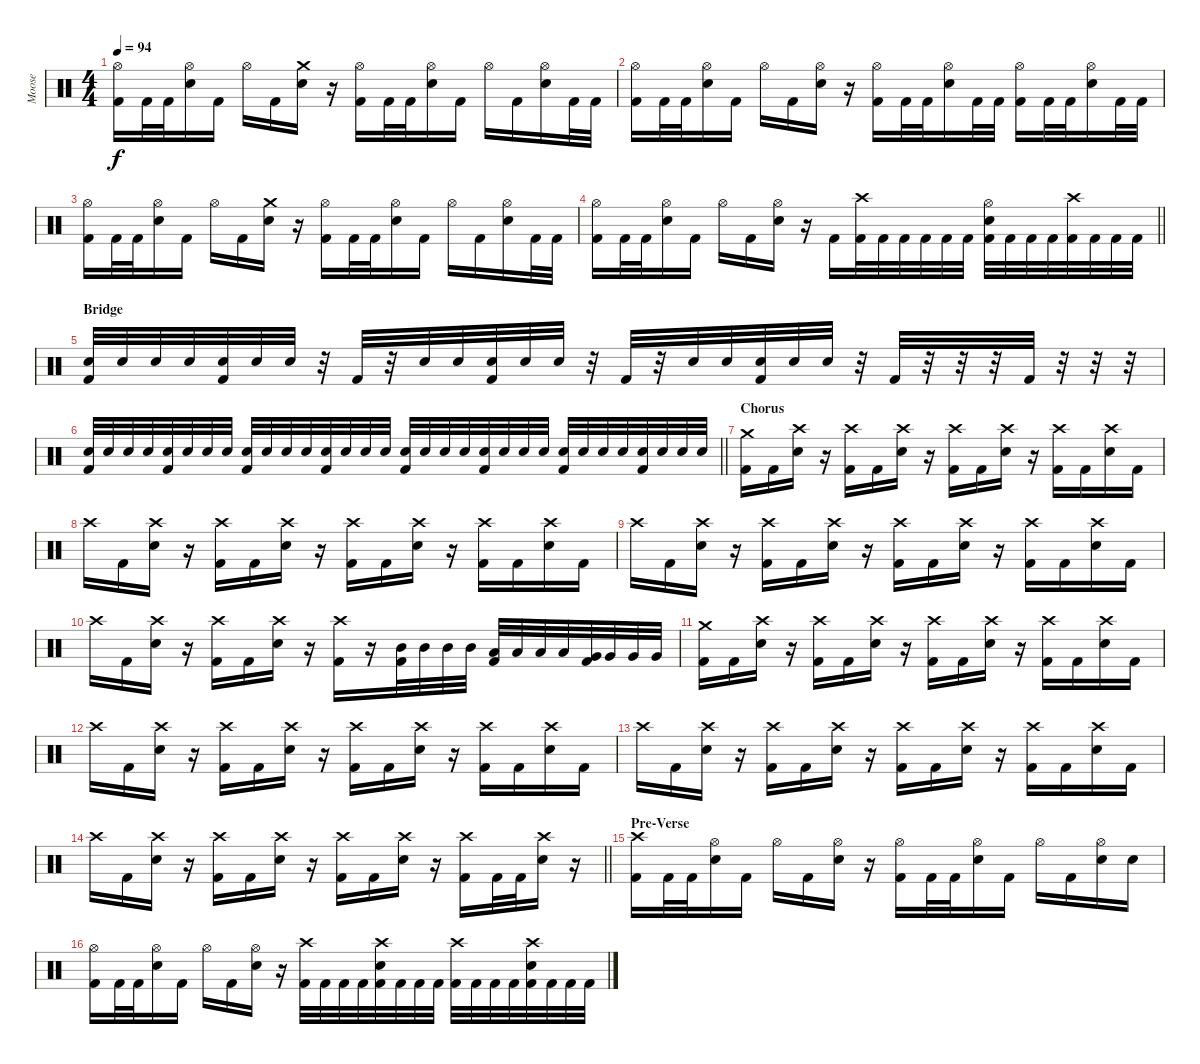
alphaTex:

\track ("Moose" "Moose") {instrument percussion}
\staff {score}
\articulation defaults
\ts (4 4)
\tempo 94
\clef neutral
\ks c
("Hi-Hat (open)" "Kick (hit) 2").16{dy f} "Kick (hit) 2".32 "Kick (hit) 2".32 ("Hi-Hat (open)" "Electric Snare (hit)").16 "Kick (hit) 2".16 "Hi-Hat (open)".16 "Kick (hit) 2".16 ("Crash medium (hit)" "Electric Snare (hit)").16 r.16 ("Hi-Hat (open)" "Kick (hit) 2").16 "Kick (hit) 2".32 "Kick (hit) 2".32 ("Hi-Hat (open)" "Electric Snare (hit)").16 "Kick (hit) 2".16 "Hi-Hat (open)".16 "Kick (hit) 2".16 ("Hi-Hat (open)" "Electric Snare (hit)").16 "Kick (hit) 2".32 "Kick (hit) 2".32 |
("Hi-Hat (open)" "Kick (hit) 2").16 "Kick (hit) 2".32 "Kick (hit) 2".32 ("Hi-Hat (open)" "Electric Snare (hit)").16 "Kick (hit) 2".16 "Hi-Hat (open)".16 "Kick (hit) 2".16 ("Hi-Hat (open)" "Electric Snare (hit)").16 r.16 ("Hi-Hat (open)" "Kick (hit) 2").16 "Kick (hit) 2".32 "Kick (hit) 2".32 ("Hi-Hat (open)" "Electric Snare (hit)").16 "Kick (hit) 2".32 "Kick (hit) 2".32 ("Hi-Hat (open)" "Kick (hit) 2").16 "Kick (hit) 2".32 "Kick (hit) 2".32 ("Hi-Hat (open)" "Electric Snare (hit)").16 "Kick (hit) 2".32 "Kick (hit) 2".32 |
("Hi-Hat (open)" "Kick (hit) 2").16 "Kick (hit) 2".32 "Kick (hit) 2".32 ("Hi-Hat (open)" "Electric Snare (hit)").16 "Kick (hit) 2".16 "Hi-Hat (open)".16 "Kick (hit) 2".16 ("Crash medium (hit)" "Electric Snare (hit)").16 r.16 ("Hi-Hat (open)" "Kick (hit) 2").16 "Kick (hit) 2".32 "Kick (hit) 2".32 ("Hi-Hat (open)" "Electric Snare (hit)").16 "Kick (hit) 2".16 "Hi-Hat (open)".16 "Kick (hit) 2".16 ("Hi-Hat (open)" "Electric Snare (hit)").16 "Kick (hit) 2".32 "Kick (hit) 2".32 |
\barLineRight lightlight
("Hi-Hat (open)" "Kick (hit) 2").16 "Kick (hit) 2".32 "Kick (hit) 2".32 ("Hi-Hat (open)" "Electric Snare (hit)").16 "Kick (hit) 2".16 "Hi-Hat (open)".16 "Kick (hit) 2".16 ("Hi-Hat (open)" "Electric Snare (hit)").16 r.16 "Kick (hit) 2".16 ("Crash high (hit)" "Kick (hit) 2").32 "Kick (hit) 2".32 "Kick (hit) 2".32 "Kick (hit) 2".32 "Kick (hit) 2".32 "Kick (hit) 2".32 ("Hi-Hat (open)" "Electric Snare (hit)" "Kick (hit) 2").32 "Kick (hit) 2".32 "Kick (hit) 2".32 "Kick (hit) 2".32 ("Crash high (hit)" "Kick (hit) 2").32 "Kick (hit) 2".32 "Kick (hit) 2".32 "Kick (hit) 2".32 |
\section ("" "Bridge")
("Electric Snare (hit)" "Kick (hit) 2").32 "Electric Snare (hit)".32 "Electric Snare (hit)".32 "Electric Snare (hit)".32 ("Electric Snare (hit)" "Kick (hit) 2").32 "Electric Snare (hit)".32 "Electric Snare (hit)".32 r.32 "Kick (hit) 2".32 r.32 "Electric Snare (hit)".32 "Electric Snare (hit)".32 ("Electric Snare (hit)" "Kick (hit) 2").32 "Electric Snare (hit)".32 "Electric Snare (hit)".32 r.32 "Kick (hit) 2".32 r.32 "Electric Snare (hit)".32 "Electric Snare (hit)".32 ("Electric Snare (hit)" "Kick (hit) 2").32 "Electric Snare (hit)".32 "Electric Snare (hit)".32 r.32 "Kick (hit) 2".32 r.32 r.32 r.32 "Kick (hit) 2".32 r.32 r.32 r.32 |
\barLineRight lightlight
("Electric Snare (hit)" "Kick (hit) 2").32 "Electric Snare (hit)".32 "Electric Snare (hit)".32 "Electric Snare (hit)".32 ("Electric Snare (hit)" "Kick (hit) 2").32 "Electric Snare (hit)".32 "Electric Snare (hit)".32 "Electric Snare (hit)".32 ("Electric Snare (hit)" "Kick (hit) 2").32 "Electric Snare (hit)".32 "Electric Snare (hit)".32 "Electric Snare (hit)".32 ("Electric Snare (hit)" "Kick (hit) 2").32 "Electric Snare (hit)".32 "Electric Snare (hit)".32 "Electric Snare (hit)".32 ("Electric Snare (hit)" "Kick (hit) 2").32 "Electric Snare (hit)".32 "Electric Snare (hit)".32 "Electric Snare (hit)".32 ("Electric Snare (hit)" "Kick (hit) 2").32 "Electric Snare (hit)".32 "Electric Snare (hit)".32 "Electric Snare (hit)".32 ("Electric Snare (hit)" "Kick (hit) 2").32 "Electric Snare (hit)".32 "Electric Snare (hit)".32 "Electric Snare (hit)".32 ("Electric Snare (hit)" "Kick (hit) 2").32 "Electric Snare (hit)".32 "Electric Snare (hit)".32 "Electric Snare (hit)".32 |
\section ("" "Chorus")
("Crash medium (hit)" "Kick (hit) 2").16 "Kick (hit) 2".16 ("Crash high (hit)" "Electric Snare (hit)").16 r.16 ("Crash high (hit)" "Kick (hit) 2").16 "Kick (hit) 2".16 ("Crash high (hit)" "Electric Snare (hit)").16 r.16 ("Crash high (hit)" "Kick (hit) 2").16 "Kick (hit) 2".16 ("Crash high (hit)" "Electric Snare (hit)").16 r.16 ("Crash high (hit)" "Kick (hit) 2").16 "Kick (hit) 2".16 ("Crash high (hit)" "Electric Snare (hit)").16 "Kick (hit) 2".16 |
"Crash high (hit)".16 "Kick (hit) 2".16 ("Crash high (hit)" "Electric Snare (hit)").16 r.16 ("Crash high (hit)" "Kick (hit) 2").16 "Kick (hit) 2".16 ("Crash high (hit)" "Electric Snare (hit)").16 r.16 ("Crash high (hit)" "Kick (hit) 2").16 "Kick (hit) 2".16 ("Crash high (hit)" "Electric Snare (hit)").16 r.16 ("Crash high (hit)" "Kick (hit) 2").16 "Kick (hit) 2".16 ("Crash high (hit)" "Electric Snare (hit)").16 "Kick (hit) 2".16 |
"Crash high (hit)".16 "Kick (hit) 2".16 ("Crash high (hit)" "Electric Snare (hit)").16 r.16 ("Crash high (hit)" "Kick (hit) 2").16 "Kick (hit) 2".16 ("Crash high (hit)" "Electric Snare (hit)").16 r.16 ("Crash high (hit)" "Kick (hit) 2").16 "Kick (hit) 2".16 ("Crash high (hit)" "Electric Snare (hit)").16 r.16 ("Crash high (hit)" "Kick (hit) 2").16 "Kick (hit) 2".16 ("Crash high (hit)" "Electric Snare (hit)").16 "Kick (hit) 2".16 |
"Crash high (hit)".16 "Kick (hit) 2".16 ("Crash high (hit)" "Electric Snare (hit)").16 r.16 ("Crash high (hit)" "Kick (hit) 2").16 "Kick (hit) 2".16 ("Crash high (hit)" "Electric Snare (hit)").16 r.16 ("Crash high (hit)" "Kick (hit) 2").16 r.16 ("Mid Tom (hit)" "Kick (hit) 2").32 "Mid Tom (hit)".32 "Mid Tom (hit)".32 "Mid Tom (hit)".32 ("Low Tom (hit)" "Kick (hit) 2").32 "Low Tom (hit)".32 "Low Tom (hit)".32 "Low Tom (hit)".32 ("Very Low Tom (hit)" "Kick (hit) 2").32 "Very Low Tom (hit)".32 "Very Low Tom (hit)".32 "Very Low Tom (hit)".32 |
("Crash medium (hit)" "Kick (hit) 2").16 "Kick (hit) 2".16 ("Crash high (hit)" "Electric Snare (hit)").16 r.16 ("Crash high (hit)" "Kick (hit) 2").16 "Kick (hit) 2".16 ("Crash high (hit)" "Electric Snare (hit)").16 r.16 ("Crash high (hit)" "Kick (hit) 2").16 "Kick (hit) 2".16 ("Crash high (hit)" "Electric Snare (hit)").16 r.16 ("Crash high (hit)" "Kick (hit) 2").16 "Kick (hit) 2".16 ("Crash high (hit)" "Electric Snare (hit)").16 "Kick (hit) 2".16 |
"Crash high (hit)".16 "Kick (hit) 2".16 ("Crash high (hit)" "Electric Snare (hit)").16 r.16 ("Crash high (hit)" "Kick (hit) 2").16 "Kick (hit) 2".16 ("Crash high (hit)" "Electric Snare (hit)").16 r.16 ("Crash high (hit)" "Kick (hit) 2").16 "Kick (hit) 2".16 ("Crash high (hit)" "Electric Snare (hit)").16 r.16 ("Crash high (hit)" "Kick (hit) 2").16 "Kick (hit) 2".16 ("Crash high (hit)" "Electric Snare (hit)").16 "Kick (hit) 2".16 |
"Crash high (hit)".16 "Kick (hit) 2".16 ("Crash high (hit)" "Electric Snare (hit)").16 r.16 ("Crash high (hit)" "Kick (hit) 2").16 "Kick (hit) 2".16 ("Crash high (hit)" "Electric Snare (hit)").16 r.16 ("Crash high (hit)" "Kick (hit) 2").16 "Kick (hit) 2".16 ("Crash high (hit)" "Electric Snare (hit)").16 r.16 ("Crash high (hit)" "Kick (hit) 2").16 "Kick (hit) 2".16 ("Crash high (hit)" "Electric Snare (hit)").16 "Kick (hit) 2".16 |
\barLineRight lightlight "Crash high (hit)".16 "Kick (hit) 2".16
("Crash high (hit)" "Electric Snare (hit)").16 r.16 ("Crash high (hit)" "Kick (hit) 2").16 "Kick (hit) 2".16 ("Crash high (hit)" "Electric Snare (hit)").16 r.16 ("Crash high (hit)" "Kick (hit) 2").16 "Kick (hit) 2".16 ("Crash high (hit)" "Electric Snare (hit)").16 r.16 ("Crash high (hit)" "Kick (hit) 2").16 "Kick (hit) 2".32 "Kick (hit) 2".32 ("Crash high (hit)" "Electric Snare (hit)").16 r.16 |
\section ("" "Pre-Verse")
("Crash high (hit)" "Kick (hit) 2").16 "Kick (hit) 2".32 "Kick (hit) 2".32 ("Hi-Hat (open)" "Electric Snare (hit)").16 "Kick (hit) 2".16 "Hi-Hat (open)".16 "Kick (hit) 2".16 ("Hi-Hat (open)" "Electric Snare (hit)").16 r.16 ("Hi-Hat (open)" "Kick (hit) 2").16 "Kick (hit) 2".32 "Kick (hit) 2".32 ("Hi-Hat (open)" "Electric Snare (hit)").16 "Kick (hit) 2".16 "Hi-Hat (open)".16 "Kick (hit) 2".16 ("Hi-Hat (open)" "Electric Snare (hit)").16 "Electric Snare (hit)".16 |
("Hi-Hat (open)" "Kick (hit) 2").16 "Kick (hit) 2".32 "Kick (hit) 2".32 ("Hi-Hat (open)" "Electric Snare (hit)").16 "Kick (hit) 2".16 "Hi-Hat (open)".16 "Kick (hit) 2".16 ("Hi-Hat (open)" "Electric Snare (hit)").16 r.16 ("Crash high (hit)" "Kick (hit) 2").32 "Kick (hit) 2".32 "Kick (hit) 2".32 "Kick (hit) 2".32 ("Crash high (hit)" "Electric Snare (hit)" "Kick (hit) 2").32 "Kick (hit) 2".32 "Kick (hit) 2".32 "Kick (hit) 2".32 ("Crash high (hit)" "Kick (hit) 2").32 "Kick (hit) 2".32 "Kick (hit) 2".32 "Kick (hit) 2".32 ("Crash high (hit)" "Electric Snare (hit)" "Kick (hit) 2").32 "Kick (hit) 2".32 "Kick (hit) 2".32 "Kick (hit) 2".32
